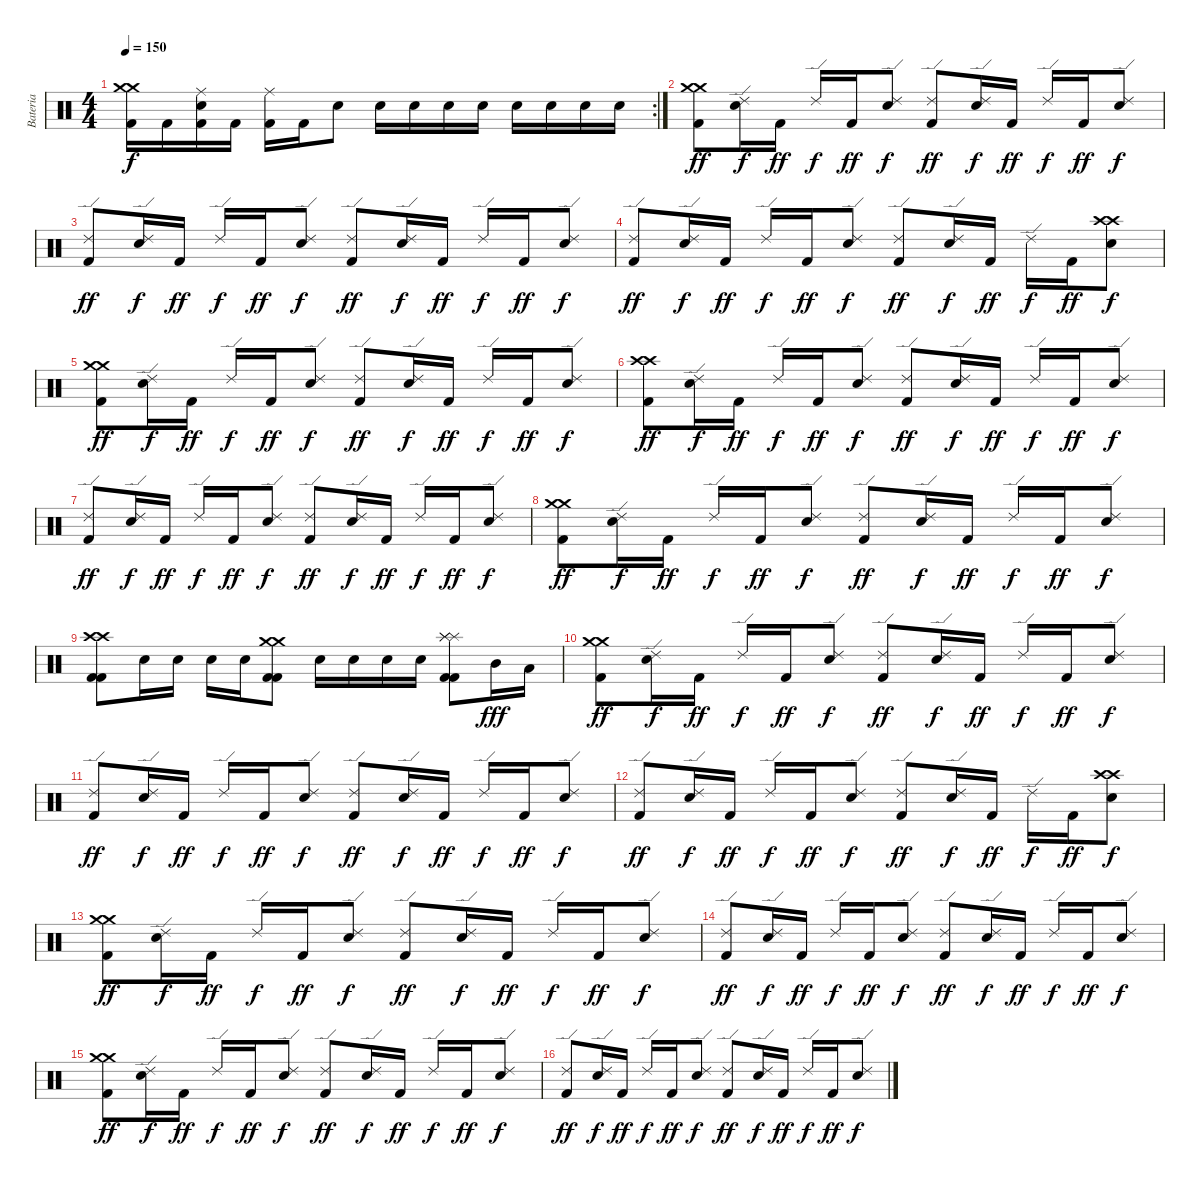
\track ("Bateria" "Bateria") {instrument percussion}
\staff {score}
\articulation defaults
\rc 2
\ts (4 4)
\tempo 150
\clef neutral
\ks c
("Crash medium (hit)" "Crash medium (hit)" "Kick (hit) 2").16{dy f} "Kick (hit) 2".16 ("Ride (middle)" "Snare (hit) 2" "Kick (hit) 2").16 "Kick (hit) 2".16 ("Ride (middle)" "Kick (hit) 2").16 "Kick (hit) 2".16 "Snare (hit) 2".8 "Snare (hit) 2".16 "Snare (hit) 2".16 "Snare (hit) 2".16 "Snare (hit) 2".16 "Snare (hit) 2".16 "Snare (hit) 2".16 "Snare (hit) 2".16 "Snare (hit) 2".16 |
("Crash medium (hit)" "Crash medium (hit)" "Kick (hit) 2").8{dy ff} ("Ride (edge) 2" "Snare (hit) 2").16{dy f} "Kick (hit) 2".16{dy ff} "Ride (edge) 2".16{dy f} "Kick (hit) 2".16{dy ff} ("Ride (edge) 2" "Snare (hit) 2").8{dy f} ("Ride (edge) 2" "Kick (hit) 2").8{dy ff} ("Ride (edge) 2" "Snare (hit) 2").16{dy f} "Kick (hit) 2".16{dy ff} "Ride (edge) 2".16{dy f} "Kick (hit) 2".16{dy ff} ("Ride (edge) 2" "Snare (hit) 2").8{dy f} |
("Ride (edge) 2" "Kick (hit) 2").8{dy ff} ("Ride (edge) 2" "Snare (hit) 2").16{dy f} "Kick (hit) 2".16{dy ff} "Ride (edge) 2".16{dy f} "Kick (hit) 2".16{dy ff} ("Ride (edge) 2" "Snare (hit) 2").8{dy f} ("Ride (edge) 2" "Kick (hit) 2").8{dy ff} ("Ride (edge) 2" "Snare (hit) 2").16{dy f} "Kick (hit) 2".16{dy ff} "Ride (edge) 2".16{dy f} "Kick (hit) 2".16{dy ff} ("Ride (edge) 2" "Snare (hit) 2").8{dy f} |
("Ride (edge) 2" "Kick (hit) 2").8{dy ff} ("Ride (edge) 2" "Snare (hit) 2").16{dy f} "Kick (hit) 2".16{dy ff} "Ride (edge) 2".16{dy f} "Kick (hit) 2".16{dy ff} ("Ride (edge) 2" "Snare (hit) 2").8{dy f} ("Ride (edge) 2" "Kick (hit) 2").8{dy ff} ("Ride (edge) 2" "Snare (hit) 2").16{dy f} "Kick (hit) 2".16{dy ff} "Ride (edge) 2".16{dy f} "Kick (hit) 2".16{dy ff} ("Crash high (hit)" "Crash high (hit)" "Snare (hit) 2").8{dy f} |
("Crash medium (hit)" "Crash medium (hit)" "Kick (hit) 2").8{dy ff} ("Ride (edge) 2" "Snare (hit) 2").16{dy f} "Kick (hit) 2".16{dy ff} "Ride (edge) 2".16{dy f} "Kick (hit) 2".16{dy ff} ("Ride (edge) 2" "Snare (hit) 2").8{dy f} ("Ride (edge) 2" "Kick (hit) 2").8{dy ff} ("Ride (edge) 2" "Snare (hit) 2").16{dy f} "Kick (hit) 2".16{dy ff} "Ride (edge) 2".16{dy f} "Kick (hit) 2".16{dy ff} ("Ride (edge) 2" "Snare (hit) 2").8{dy f} |
("Crash high (hit)" "Crash high (hit)" "Kick (hit) 2").8{dy ff} ("Ride (edge) 2" "Snare (hit) 2").16{dy f} "Kick (hit) 2".16{dy ff} "Ride (edge) 2".16{dy f} "Kick (hit) 2".16{dy ff} ("Ride (edge) 2" "Snare (hit) 2").8{dy f} ("Ride (edge) 2" "Kick (hit) 2").8{dy ff} ("Ride (edge) 2" "Snare (hit) 2").16{dy f} "Kick (hit) 2".16{dy ff} "Ride (edge) 2".16{dy f} "Kick (hit) 2".16{dy ff} ("Ride (edge) 2" "Snare (hit) 2").8{dy f} |
("Ride (edge) 2" "Kick (hit) 2").8{dy ff} ("Ride (edge) 2" "Snare (hit) 2").16{dy f} "Kick (hit) 2".16{dy ff} "Ride (edge) 2".16{dy f} "Kick (hit) 2".16{dy ff} ("Ride (edge) 2" "Snare (hit) 2").8{dy f} ("Ride (edge) 2" "Kick (hit) 2").8{dy ff} ("Ride (edge) 2" "Snare (hit) 2").16{dy f} "Kick (hit) 2".16{dy ff} "Ride (edge) 2".16{dy f} "Kick (hit) 2".16{dy ff} ("Ride (edge) 2" "Snare (hit) 2").8{dy f} |
("Crash medium (hit)" "Crash medium (hit)" "Kick (hit) 2").8{dy ff} ("Ride (edge) 2" "Snare (hit) 2").16{dy f} "Kick (hit) 2".16{dy ff} "Ride (edge) 2".16{dy f} "Kick (hit) 2".16{dy ff} ("Ride (edge) 2" "Snare (hit) 2").8{dy f} ("Ride (edge) 2" "Kick (hit) 2").8{dy ff} ("Ride (edge) 2" "Snare (hit) 2").16{dy f} "Kick (hit) 2".16{dy ff} "Ride (edge) 2".16{dy f} "Kick (hit) 2".16{dy ff} ("Ride (edge) 2" "Snare (hit) 2").8{dy f} |
("Crash high (hit)" "Crash high (hit)" "Kick (hit) 2" "Kick (hit) 2").8 "Snare (hit) 2".16 "Snare (hit) 2".16 "Snare (hit) 2".16 "Snare (hit) 2".16 ("Crash medium (hit)" "Crash medium (hit)" "Kick (hit) 2" "Kick (hit) 2").8 "Snare (hit) 2".16 "Snare (hit) 2".16 "Snare (hit) 2".16 "Snare (hit) 2".16 ("Splash (hit)" "Splash (hit)" "Splash (hit)" "Kick (hit) 2" "Kick (hit) 2").8 "Mid Tom (hit)".16{dy fff} "Low Tom (hit)".16 |
("Crash medium (hit)" "Crash medium (hit)" "Kick (hit) 2").8{dy ff} ("Ride (edge) 2" "Snare (hit) 2").16{dy f} "Kick (hit) 2".16{dy ff} "Ride (edge) 2".16{dy f} "Kick (hit) 2".16{dy ff} ("Ride (edge) 2" "Snare (hit) 2").8{dy f} ("Ride (edge) 2" "Kick (hit) 2").8{dy ff} ("Ride (edge) 2" "Snare (hit) 2").16{dy f} "Kick (hit) 2".16{dy ff} "Ride (edge) 2".16{dy f} "Kick (hit) 2".16{dy ff} ("Ride (edge) 2" "Snare (hit) 2").8{dy f} |
("Ride (edge) 2" "Kick (hit) 2").8{dy ff} ("Ride (edge) 2" "Snare (hit) 2").16{dy f} "Kick (hit) 2".16{dy ff} "Ride (edge) 2".16{dy f} "Kick (hit) 2".16{dy ff} ("Ride (edge) 2" "Snare (hit) 2").8{dy f} ("Ride (edge) 2" "Kick (hit) 2").8{dy ff} ("Ride (edge) 2" "Snare (hit) 2").16{dy f} "Kick (hit) 2".16{dy ff} "Ride (edge) 2".16{dy f} "Kick (hit) 2".16{dy ff} ("Ride (edge) 2" "Snare (hit) 2").8{dy f} |
("Ride (edge) 2" "Kick (hit) 2").8{dy ff} ("Ride (edge) 2" "Snare (hit) 2").16{dy f} "Kick (hit) 2".16{dy ff} "Ride (edge) 2".16{dy f} "Kick (hit) 2".16{dy ff} ("Ride (edge) 2" "Snare (hit) 2").8{dy f} ("Ride (edge) 2" "Kick (hit) 2").8{dy ff} ("Ride (edge) 2" "Snare (hit) 2").16{dy f} "Kick (hit) 2".16{dy ff} "Ride (edge) 2".16{dy f} "Kick (hit) 2".16{dy ff} ("Crash high (hit)" "Crash high (hit)" "Snare (hit) 2").8{dy f} |
("Crash medium (hit)" "Crash medium (hit)" "Kick (hit) 2").8{dy ff} ("Ride (edge) 2" "Snare (hit) 2").16{dy f} "Kick (hit) 2".16{dy ff} "Ride (edge) 2".16{dy f} "Kick (hit) 2".16{dy ff} ("Ride (edge) 2" "Snare (hit) 2").8{dy f} ("Ride (edge) 2" "Kick (hit) 2").8{dy ff} ("Ride (edge) 2" "Snare (hit) 2").16{dy f} "Kick (hit) 2".16{dy ff} "Ride (edge) 2".16{dy f} "Kick (hit) 2".16{dy ff} ("Ride (edge) 2" "Snare (hit) 2").8{dy f} |
("Ride (edge) 2" "Kick (hit) 2").8{dy ff} ("Ride (edge) 2" "Snare (hit) 2").16{dy f} "Kick (hit) 2".16{dy ff} "Ride (edge) 2".16{dy f} "Kick (hit) 2".16{dy ff} ("Ride (edge) 2" "Snare (hit) 2").8{dy f} ("Ride (edge) 2" "Kick (hit) 2").8{dy ff} ("Ride (edge) 2" "Snare (hit) 2").16{dy f} "Kick (hit) 2".16{dy ff} "Ride (edge) 2".16{dy f} "Kick (hit) 2".16{dy ff} ("Ride (edge) 2" "Snare (hit) 2").8{dy f} |
("Crash medium (hit)" "Crash medium (hit)" "Kick (hit) 2").8{dy ff} ("Ride (edge) 2" "Snare (hit) 2").16{dy f} "Kick (hit) 2".16{dy ff} "Ride (edge) 2".16{dy f} "Kick (hit) 2".16{dy ff} ("Ride (edge) 2" "Snare (hit) 2").8{dy f} ("Ride (edge) 2" "Kick (hit) 2").8{dy ff} ("Ride (edge) 2" "Snare (hit) 2").16{dy f} "Kick (hit) 2".16{dy ff} "Ride (edge) 2".16{dy f} "Kick (hit) 2".16{dy ff} ("Ride (edge) 2" "Snare (hit) 2").8{dy f} |
("Ride (edge) 2" "Kick (hit) 2").8{dy ff} ("Ride (edge) 2" "Snare (hit) 2").16{dy f} "Kick (hit) 2".16{dy ff} "Ride (edge) 2".16{dy f} "Kick (hit) 2".16{dy ff} ("Ride (edge) 2" "Snare (hit) 2").8{dy f} ("Ride (edge) 2" "Kick (hit) 2").8{dy ff} ("Ride (edge) 2" "Snare (hit) 2").16{dy f} "Kick (hit) 2".16{dy ff} "Ride (edge) 2".16{dy f} "Kick (hit) 2".16{dy ff} ("Ride (edge) 2" "Snare (hit) 2").8{dy f}
